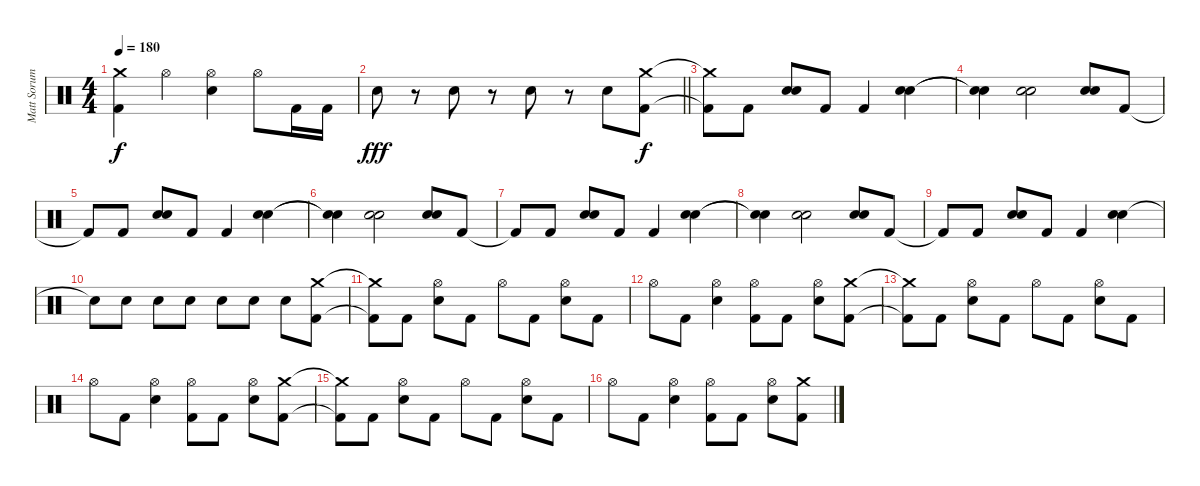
\track ("Matt Sorum" "Matt Sorum") {instrument percussion}
\staff {score}
\articulation defaults
\ts (4 4)
\tempo 180
\clef neutral
\ks c
("Crash medium (hit)" "Kick (hit) 2").4{dy f} "Hi-Hat (open)".4 ("Hi-Hat (open)" "Electric Snare (hit)").4 "Hi-Hat (open)".8 "Kick (hit) 2".16 "Kick (hit) 2".16 |
\barLineRight lightlight "Electric Snare (hit)".8{dy fff}
r.8 "Electric Snare (hit)".8 r.8 "Electric Snare (hit)".8 r.8 "Electric Snare (hit)".8 ("Crash medium (hit)" "Kick (hit) 2").8{dy f} |
("Crash medium (hit)"{t} "Kick (hit) 2"{t}).8 "Kick (hit) 2".8 ("Electric Snare (hit)" "Electric Snare (hit)").8 "Kick (hit) 2".8 "Kick (hit) 2".4 ("Electric Snare (hit)" "Electric Snare (hit)").4 |
("Snare (hit)"{t} "Snare (hit)"{t}).4 ("Electric Snare (hit)" "Electric Snare (hit)").2 ("Electric Snare (hit)" "Electric Snare (hit)").8 "Kick (hit) 2".8 |
"Kick (hit) 2"{t}.8 "Kick (hit) 2".8 ("Electric Snare (hit)" "Electric Snare (hit)").8 "Kick (hit) 2".8 "Kick (hit) 2".4 ("Electric Snare (hit)" "Electric Snare (hit)").4 |
("Snare (hit)"{t} "Snare (hit)"{t}).4 ("Electric Snare (hit)" "Electric Snare (hit)").2 ("Electric Snare (hit)" "Electric Snare (hit)").8 "Kick (hit) 2".8 |
"Kick (hit) 2"{t}.8 "Kick (hit) 2".8 ("Electric Snare (hit)" "Electric Snare (hit)").8 "Kick (hit) 2".8 "Kick (hit) 2".4 ("Electric Snare (hit)" "Electric Snare (hit)").4 |
("Snare (hit)"{t} "Snare (hit)"{t}).4 ("Electric Snare (hit)" "Electric Snare (hit)").2 ("Electric Snare (hit)" "Electric Snare (hit)").8 "Kick (hit) 2".8 |
"Kick (hit) 2"{t}.8 "Kick (hit) 2".8 ("Electric Snare (hit)" "Electric Snare (hit)").8 "Kick (hit) 2".8 "Kick (hit) 2".4 ("Electric Snare (hit)" "Electric Snare (hit)").4 |
"Electric Snare (hit)"{t}.8 "Electric Snare (hit)".8 "Electric Snare (hit)".8 "Electric Snare (hit)".8 "Electric Snare (hit)".8 "Electric Snare (hit)".8 "Electric Snare (hit)".8 ("Crash medium (hit)" "Kick (hit) 2").8 |
("Crash medium (hit)"{t} "Kick (hit) 2"{t}).8 "Kick (hit) 2".8 ("Hi-Hat (open)" "Electric Snare (hit)").8 "Kick (hit) 2".8 "Hi-Hat (open)".8 "Kick (hit) 2".8 ("Hi-Hat (open)" "Electric Snare (hit)").8 "Kick (hit) 2".8 |
"Hi-Hat (open)".8 "Kick (hit) 2".8 ("Hi-Hat (open)" "Electric Snare (hit)").4 ("Hi-Hat (open)" "Kick (hit) 2").8 "Kick (hit) 2".8 ("Hi-Hat (open)" "Electric Snare (hit)").8 ("Crash medium (hit)" "Kick (hit) 2").8 |
("Crash medium (hit)"{t} "Kick (hit) 2"{t}).8 "Kick (hit) 2".8 ("Hi-Hat (open)" "Electric Snare (hit)").8 "Kick (hit) 2".8 "Hi-Hat (open)".8 "Kick (hit) 2".8 ("Hi-Hat (open)" "Electric Snare (hit)").8 "Kick (hit) 2".8 |
"Hi-Hat (open)".8 "Kick (hit) 2".8 ("Hi-Hat (open)" "Electric Snare (hit)").4 ("Hi-Hat (open)" "Kick (hit) 2").8 "Kick (hit) 2".8 ("Hi-Hat (open)" "Electric Snare (hit)").8 ("Crash medium (hit)" "Kick (hit) 2").8 |
("Crash medium (hit)"{t} "Kick (hit) 2"{t}).8 "Kick (hit) 2".8 ("Hi-Hat (open)" "Electric Snare (hit)").8 "Kick (hit) 2".8 "Hi-Hat (open)".8 "Kick (hit) 2".8 ("Hi-Hat (open)" "Electric Snare (hit)").8 "Kick (hit) 2".8 |
"Hi-Hat (open)".8 "Kick (hit) 2".8 ("Hi-Hat (open)" "Electric Snare (hit)").4 ("Hi-Hat (open)" "Kick (hit) 2").8 "Kick (hit) 2".8 ("Hi-Hat (open)" "Electric Snare (hit)").8 ("Crash medium (hit)" "Kick (hit) 2").8
